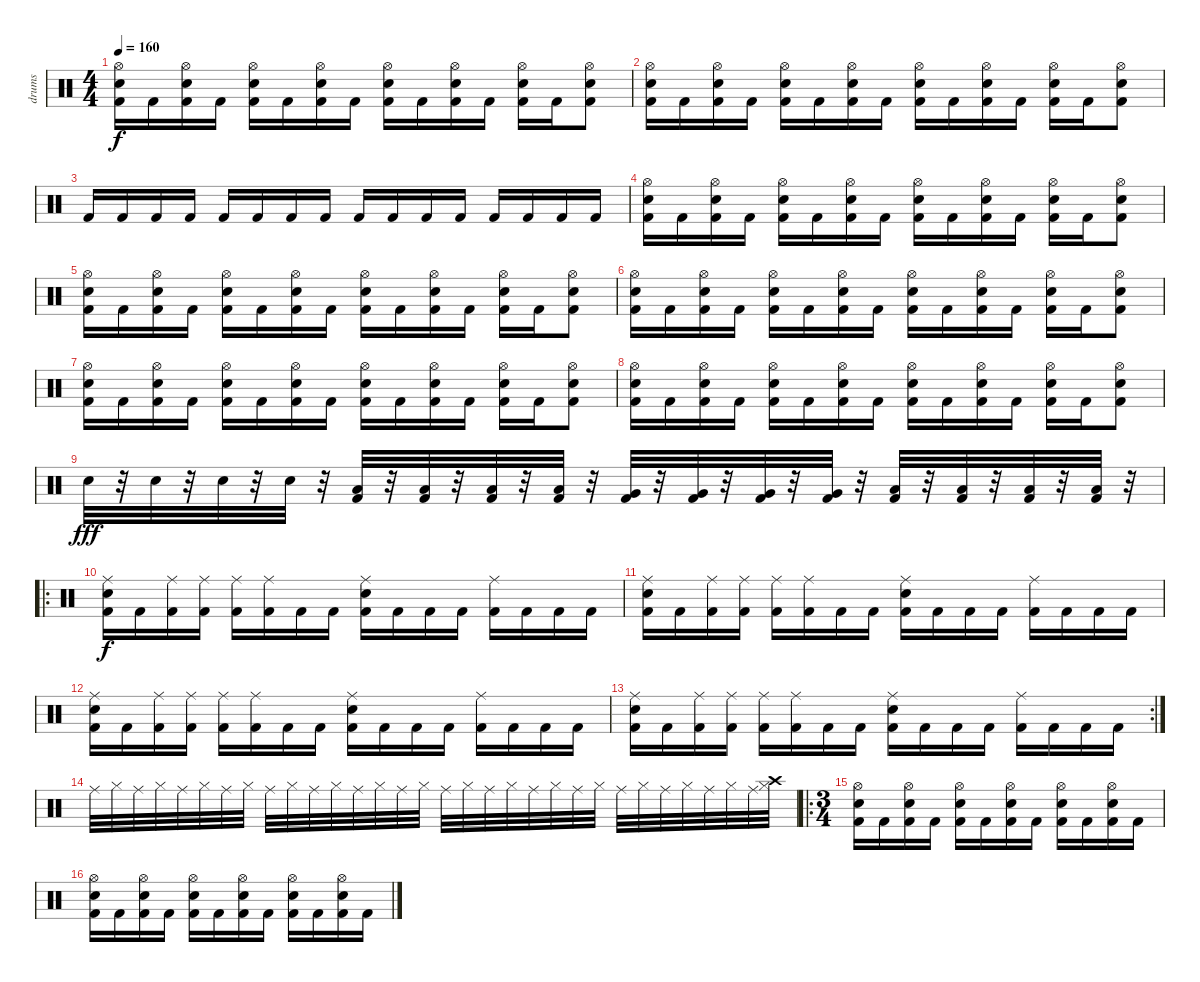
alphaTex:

\track ("drums" "drums") {instrument percussion}
\staff {score}
\articulation defaults
\ts (4 4)
\tempo 160
\clef neutral
\ks c
("Hi-Hat (open)" "Electric Snare (hit)" "Kick (hit) 2").16{dy f} "Kick (hit) 2".16 ("Hi-Hat (open)" "Electric Snare (hit)" "Kick (hit) 2").16 "Kick (hit) 2".16 ("Hi-Hat (open)" "Electric Snare (hit)" "Kick (hit) 2").16 "Kick (hit) 2".16 ("Hi-Hat (open)" "Electric Snare (hit)" "Kick (hit) 2").16 "Kick (hit) 2".16 ("Hi-Hat (open)" "Electric Snare (hit)" "Kick (hit) 2").16 "Kick (hit) 2".16 ("Hi-Hat (open)" "Electric Snare (hit)" "Kick (hit) 2").16 "Kick (hit) 2".16 ("Hi-Hat (open)" "Electric Snare (hit)" "Kick (hit) 2").16 "Kick (hit) 2".16 ("Hi-Hat (open)" "Electric Snare (hit)" "Kick (hit) 2").8 |
("Hi-Hat (open)" "Electric Snare (hit)" "Kick (hit) 2").16 "Kick (hit) 2".16 ("Hi-Hat (open)" "Electric Snare (hit)" "Kick (hit) 2").16 "Kick (hit) 2".16 ("Hi-Hat (open)" "Electric Snare (hit)" "Kick (hit) 2").16 "Kick (hit) 2".16 ("Hi-Hat (open)" "Electric Snare (hit)" "Kick (hit) 2").16 "Kick (hit) 2".16 ("Hi-Hat (open)" "Electric Snare (hit)" "Kick (hit) 2").16 "Kick (hit) 2".16 ("Hi-Hat (open)" "Electric Snare (hit)" "Kick (hit) 2").16 "Kick (hit) 2".16 ("Hi-Hat (open)" "Electric Snare (hit)" "Kick (hit) 2").16 "Kick (hit) 2".16 ("Hi-Hat (open)" "Electric Snare (hit)" "Kick (hit) 2").8 |
"Kick (hit) 2".16 "Kick (hit) 2".16 "Kick (hit) 2".16 "Kick (hit) 2".16 "Kick (hit) 2".16 "Kick (hit) 2".16 "Kick (hit) 2".16 "Kick (hit) 2".16 "Kick (hit) 2".16 "Kick (hit) 2".16 "Kick (hit) 2".16 "Kick (hit) 2".16 "Kick (hit) 2".16 "Kick (hit) 2".16 "Kick (hit) 2".16 "Kick (hit) 2".16 |
("Hi-Hat (open)" "Electric Snare (hit)" "Kick (hit) 2").16 "Kick (hit) 2".16 ("Hi-Hat (open)" "Electric Snare (hit)" "Kick (hit) 2").16 "Kick (hit) 2".16 ("Hi-Hat (open)" "Electric Snare (hit)" "Kick (hit) 2").16 "Kick (hit) 2".16 ("Hi-Hat (open)" "Electric Snare (hit)" "Kick (hit) 2").16 "Kick (hit) 2".16 ("Hi-Hat (open)" "Electric Snare (hit)" "Kick (hit) 2").16 "Kick (hit) 2".16 ("Hi-Hat (open)" "Electric Snare (hit)" "Kick (hit) 2").16 "Kick (hit) 2".16 ("Hi-Hat (open)" "Electric Snare (hit)" "Kick (hit) 2").16 "Kick (hit) 2".16 ("Hi-Hat (open)" "Electric Snare (hit)" "Kick (hit) 2").8 |
("Hi-Hat (open)" "Electric Snare (hit)" "Kick (hit) 2").16 "Kick (hit) 2".16 ("Hi-Hat (open)" "Electric Snare (hit)" "Kick (hit) 2").16 "Kick (hit) 2".16 ("Hi-Hat (open)" "Electric Snare (hit)" "Kick (hit) 2").16 "Kick (hit) 2".16 ("Hi-Hat (open)" "Electric Snare (hit)" "Kick (hit) 2").16 "Kick (hit) 2".16 ("Hi-Hat (open)" "Electric Snare (hit)" "Kick (hit) 2").16 "Kick (hit) 2".16 ("Hi-Hat (open)" "Electric Snare (hit)" "Kick (hit) 2").16 "Kick (hit) 2".16 ("Hi-Hat (open)" "Electric Snare (hit)" "Kick (hit) 2").16 "Kick (hit) 2".16 ("Hi-Hat (open)" "Electric Snare (hit)" "Kick (hit) 2").8 |
("Hi-Hat (open)" "Electric Snare (hit)" "Kick (hit) 2").16 "Kick (hit) 2".16 ("Hi-Hat (open)" "Electric Snare (hit)" "Kick (hit) 2").16 "Kick (hit) 2".16 ("Hi-Hat (open)" "Electric Snare (hit)" "Kick (hit) 2").16 "Kick (hit) 2".16 ("Hi-Hat (open)" "Electric Snare (hit)" "Kick (hit) 2").16 "Kick (hit) 2".16 ("Hi-Hat (open)" "Electric Snare (hit)" "Kick (hit) 2").16 "Kick (hit) 2".16 ("Hi-Hat (open)" "Electric Snare (hit)" "Kick (hit) 2").16 "Kick (hit) 2".16 ("Hi-Hat (open)" "Electric Snare (hit)" "Kick (hit) 2").16 "Kick (hit) 2".16 ("Hi-Hat (open)" "Electric Snare (hit)" "Kick (hit) 2").8 |
("Hi-Hat (open)" "Electric Snare (hit)" "Kick (hit) 2").16 "Kick (hit) 2".16 ("Hi-Hat (open)" "Electric Snare (hit)" "Kick (hit) 2").16 "Kick (hit) 2".16 ("Hi-Hat (open)" "Electric Snare (hit)" "Kick (hit) 2").16 "Kick (hit) 2".16 ("Hi-Hat (open)" "Electric Snare (hit)" "Kick (hit) 2").16 "Kick (hit) 2".16 ("Hi-Hat (open)" "Electric Snare (hit)" "Kick (hit) 2").16 "Kick (hit) 2".16 ("Hi-Hat (open)" "Electric Snare (hit)" "Kick (hit) 2").16 "Kick (hit) 2".16 ("Hi-Hat (open)" "Electric Snare (hit)" "Kick (hit) 2").16 "Kick (hit) 2".16 ("Hi-Hat (open)" "Electric Snare (hit)" "Kick (hit) 2").8 |
("Hi-Hat (open)" "Electric Snare (hit)" "Kick (hit) 2").16 "Kick (hit) 2".16 ("Hi-Hat (open)" "Electric Snare (hit)" "Kick (hit) 2").16 "Kick (hit) 2".16 ("Hi-Hat (open)" "Electric Snare (hit)" "Kick (hit) 2").16 "Kick (hit) 2".16 ("Hi-Hat (open)" "Electric Snare (hit)" "Kick (hit) 2").16 "Kick (hit) 2".16 ("Hi-Hat (open)" "Electric Snare (hit)" "Kick (hit) 2").16 "Kick (hit) 2".16 ("Hi-Hat (open)" "Electric Snare (hit)" "Kick (hit) 2").16 "Kick (hit) 2".16 ("Hi-Hat (open)" "Electric Snare (hit)" "Kick (hit) 2").16 "Kick (hit) 2".16 ("Hi-Hat (open)" "Electric Snare (hit)" "Kick (hit) 2").8 |
"Electric Snare (hit)".32{dy fff} r.32 "Electric Snare (hit)".32 r.32 "Electric Snare (hit)".32 r.32 "Electric Snare (hit)".32 r.32 ("Low Tom (hit)" "Kick (hit) 2").32 r.32 ("Low Tom (hit)" "Kick (hit) 2").32 r.32 ("Low Tom (hit)" "Kick (hit) 2").32 r.32 ("Low Tom (hit)" "Kick (hit) 2").32 r.32 ("Very Low Tom (hit)" "Kick (hit) 2").32 r.32 ("Very Low Tom (hit)" "Kick (hit) 2").32 r.32 ("Very Low Tom (hit)" "Kick (hit) 2").32 r.32 ("Very Low Tom (hit)" "Kick (hit) 2").32 r.32 ("Low Floor Tom (hit)" "Kick (hit) 2").32 r.32 ("Low Floor Tom (hit)" "Kick (hit) 2").32 r.32 ("Low Floor Tom (hit)" "Kick (hit) 2").32 r.32 ("Low Floor Tom (hit)" "Kick (hit) 2").32 r.32 |
\ro
("Electric Snare (hit)" "Ride (middle)" "Kick (hit) 2").16{dy f} "Kick (hit) 2".16 ("Ride (middle)" "Kick (hit) 2").16 ("Ride (middle)" "Kick (hit) 2").16 ("Ride (middle)" "Kick (hit) 2").16 ("Ride (middle)" "Kick (hit) 2").16 "Kick (hit) 2".16 "Kick (hit) 2".16 ("Electric Snare (hit)" "Ride (middle)" "Kick (hit) 2").16 "Kick (hit) 2".16 "Kick (hit) 2".16 "Kick (hit) 2".16 ("Ride (middle)" "Kick (hit) 2").16 "Kick (hit) 2".16 "Kick (hit) 2".16 "Kick (hit) 2".16 |
("Electric Snare (hit)" "Ride (middle)" "Kick (hit) 2").16 "Kick (hit) 2".16 ("Ride (middle)" "Kick (hit) 2").16 ("Ride (middle)" "Kick (hit) 2").16 ("Ride (middle)" "Kick (hit) 2").16 ("Ride (middle)" "Kick (hit) 2").16 "Kick (hit) 2".16 "Kick (hit) 2".16 ("Electric Snare (hit)" "Ride (middle)" "Kick (hit) 2").16 "Kick (hit) 2".16 "Kick (hit) 2".16 "Kick (hit) 2".16 ("Ride (middle)" "Kick (hit) 2").16 "Kick (hit) 2".16 "Kick (hit) 2".16 "Kick (hit) 2".16 |
("Electric Snare (hit)" "Ride (middle)" "Kick (hit) 2").16 "Kick (hit) 2".16 ("Ride (middle)" "Kick (hit) 2").16 ("Ride (middle)" "Kick (hit) 2").16 ("Ride (middle)" "Kick (hit) 2").16 ("Ride (middle)" "Kick (hit) 2").16 "Kick (hit) 2".16 "Kick (hit) 2".16 ("Electric Snare (hit)" "Ride (middle)" "Kick (hit) 2").16 "Kick (hit) 2".16 "Kick (hit) 2".16 "Kick (hit) 2".16 ("Ride (middle)" "Kick (hit) 2").16 "Kick (hit) 2".16 "Kick (hit) 2".16 "Kick (hit) 2".16 |
\rc 2
("Electric Snare (hit)" "Ride (middle)" "Kick (hit) 2").16 "Kick (hit) 2".16 ("Ride (middle)" "Kick (hit) 2").16 ("Ride (middle)" "Kick (hit) 2").16 ("Ride (middle)" "Kick (hit) 2").16 ("Ride (middle)" "Kick (hit) 2").16 "Kick (hit) 2".16 "Kick (hit) 2".16 ("Electric Snare (hit)" "Ride (middle)" "Kick (hit) 2").16 "Kick (hit) 2".16 "Kick (hit) 2".16 "Kick (hit) 2".16 ("Ride (middle)" "Kick (hit) 2").16 "Kick (hit) 2".16 "Kick (hit) 2".16 "Kick (hit) 2".16 |
"Ride (middle)".32 "Hi-Hat (closed)".32 "Ride (middle)".32 "Hi-Hat (closed)".32 "Ride (middle)".32 "Hi-Hat (closed)".32 "Ride (middle)".32 "Hi-Hat (closed)".32 "Ride (middle)".32 "Hi-Hat (closed)".32 "Ride (middle)".32 "Hi-Hat (closed)".32 "Ride (middle)".32 "Hi-Hat (closed)".32 "Ride (middle)".32 "Hi-Hat (closed)".32 "Ride (middle)".32 "Hi-Hat (closed)".32 "Ride (middle)".32 "Hi-Hat (closed)".32 "Ride (middle)".32 "Hi-Hat (closed)".32 "Ride (middle)".32 "Hi-Hat (closed)".32 "Ride (middle)".32 "Hi-Hat (closed)".32 "Ride (middle)".32 "Hi-Hat (closed)".32 "Ride (middle)".32 "Hi-Hat (closed)".32 "Ride (middle)".32 ("Crash high (hit)" "Hi-Hat (closed)").32 |
\ro
\ts (3 4)
("Hi-Hat (open)" "Electric Snare (hit)" "Kick (hit) 2").16 "Kick (hit) 2".16 ("Hi-Hat (open)" "Electric Snare (hit)" "Kick (hit) 2").16 "Kick (hit) 2".16 ("Hi-Hat (open)" "Electric Snare (hit)" "Kick (hit) 2").16 "Kick (hit) 2".16 ("Hi-Hat (open)" "Electric Snare (hit)" "Kick (hit) 2").16 "Kick (hit) 2".16 ("Hi-Hat (open)" "Electric Snare (hit)" "Kick (hit) 2").16 "Kick (hit) 2".16 ("Hi-Hat (open)" "Electric Snare (hit)" "Kick (hit) 2").16 "Kick (hit) 2".16 |
("Hi-Hat (open)" "Electric Snare (hit)" "Kick (hit) 2").16 "Kick (hit) 2".16 ("Hi-Hat (open)" "Electric Snare (hit)" "Kick (hit) 2").16 "Kick (hit) 2".16 ("Hi-Hat (open)" "Electric Snare (hit)" "Kick (hit) 2").16 "Kick (hit) 2".16 ("Hi-Hat (open)" "Electric Snare (hit)" "Kick (hit) 2").16 "Kick (hit) 2".16 ("Hi-Hat (open)" "Electric Snare (hit)" "Kick (hit) 2").16 "Kick (hit) 2".16 ("Hi-Hat (open)" "Electric Snare (hit)" "Kick (hit) 2").16 "Kick (hit) 2".16
